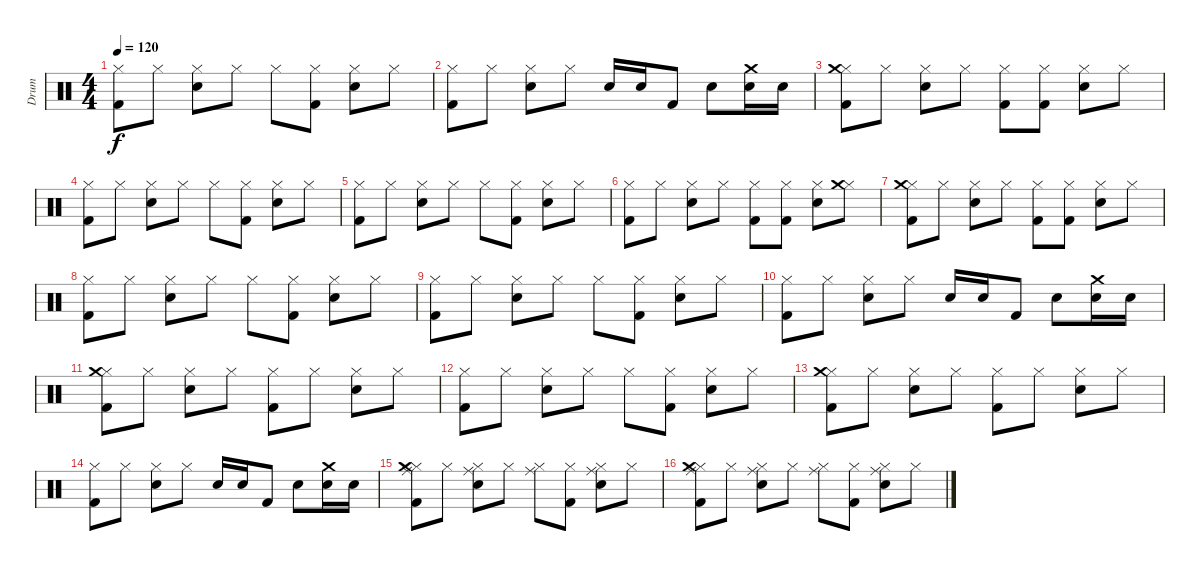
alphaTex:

\track ("Drum" "Drum") {instrument percussion}
\staff {score}
\articulation defaults
\ts (4 4)
\tempo 120
\clef neutral
\ks c
("Hi-Hat (closed)" "Kick (hit) 2").8{dy f} "Hi-Hat (closed)".8 ("Hi-Hat (closed)" "Snare (hit) 2").8 "Hi-Hat (closed)".8 "Hi-Hat (closed)".8 ("Hi-Hat (closed)" "Kick (hit) 2").8 ("Hi-Hat (closed)" "Snare (hit) 2").8 "Hi-Hat (closed)".8 |
("Hi-Hat (closed)" "Kick (hit) 2").8 "Hi-Hat (closed)".8 ("Hi-Hat (closed)" "Snare (hit) 2").8 "Hi-Hat (closed)".8 "Snare (hit) 2".16 "Snare (hit) 2".16 "Kick (hit) 2".8 "Snare (hit) 2".8 ("Crash medium (hit)" "Snare (hit) 2").16 "Snare (hit) 2".16 |
("Hi-Hat (closed)" "Kick (hit) 2" "Crash medium (hit)").8 "Hi-Hat (closed)".8 ("Hi-Hat (closed)" "Snare (hit) 2").8 "Hi-Hat (closed)".8 ("Hi-Hat (closed)" "Kick (hit) 2").8 ("Hi-Hat (closed)" "Kick (hit) 2").8 ("Hi-Hat (closed)" "Snare (hit) 2").8 "Hi-Hat (closed)".8 |
("Hi-Hat (closed)" "Kick (hit) 2").8 "Hi-Hat (closed)".8 ("Hi-Hat (closed)" "Snare (hit) 2").8 "Hi-Hat (closed)".8 "Hi-Hat (closed)".8 ("Hi-Hat (closed)" "Kick (hit) 2").8 ("Hi-Hat (closed)" "Snare (hit) 2").8 "Hi-Hat (closed)".8 |
("Hi-Hat (closed)" "Kick (hit) 2").8 "Hi-Hat (closed)".8 ("Hi-Hat (closed)" "Snare (hit) 2").8 "Hi-Hat (closed)".8 "Hi-Hat (closed)".8 ("Hi-Hat (closed)" "Kick (hit) 2").8 ("Hi-Hat (closed)" "Snare (hit) 2").8 "Hi-Hat (closed)".8 |
("Hi-Hat (closed)" "Kick (hit) 2").8 "Hi-Hat (closed)".8 ("Hi-Hat (closed)" "Snare (hit) 2").8 "Hi-Hat (closed)".8 ("Hi-Hat (closed)" "Kick (hit) 2").8 ("Hi-Hat (closed)" "Kick (hit) 2").8 ("Hi-Hat (closed)" "Snare (hit) 2").8 ("Hi-Hat (closed)" "Crash medium (hit)").8 |
("Hi-Hat (closed)" "Kick (hit) 2" "Crash medium (hit)").8 "Hi-Hat (closed)".8 ("Hi-Hat (closed)" "Snare (hit) 2").8 "Hi-Hat (closed)".8 ("Hi-Hat (closed)" "Kick (hit) 2").8 ("Hi-Hat (closed)" "Kick (hit) 2").8 ("Hi-Hat (closed)" "Snare (hit) 2").8 "Hi-Hat (closed)".8 |
("Hi-Hat (closed)" "Kick (hit) 2").8 "Hi-Hat (closed)".8 ("Hi-Hat (closed)" "Snare (hit) 2").8 "Hi-Hat (closed)".8 "Hi-Hat (closed)".8 ("Hi-Hat (closed)" "Kick (hit) 2").8 ("Hi-Hat (closed)" "Snare (hit) 2").8 "Hi-Hat (closed)".8 |
("Hi-Hat (closed)" "Kick (hit) 2").8 "Hi-Hat (closed)".8 ("Hi-Hat (closed)" "Snare (hit) 2").8 "Hi-Hat (closed)".8 "Hi-Hat (closed)".8 ("Hi-Hat (closed)" "Kick (hit) 2").8 ("Hi-Hat (closed)" "Snare (hit) 2").8 "Hi-Hat (closed)".8 |
("Hi-Hat (closed)" "Kick (hit) 2").8 "Hi-Hat (closed)".8 ("Hi-Hat (closed)" "Snare (hit) 2").8 "Hi-Hat (closed)".8 "Snare (hit) 2".16 "Snare (hit) 2".16 "Kick (hit) 2".8 "Snare (hit) 2".8 ("Crash medium (hit)" "Snare (hit) 2").16 "Snare (hit) 2".16 |
("Hi-Hat (closed)" "Kick (hit) 2" "Crash medium (hit)").8 "Hi-Hat (closed)".8 ("Hi-Hat (closed)" "Snare (hit) 2").8 "Hi-Hat (closed)".8 ("Hi-Hat (closed)" "Kick (hit) 2").8 "Hi-Hat (closed)".8 ("Hi-Hat (closed)" "Snare (hit) 2").8 "Hi-Hat (closed)".8 |
("Hi-Hat (closed)" "Kick (hit) 2").8 "Hi-Hat (closed)".8 ("Hi-Hat (closed)" "Snare (hit) 2").8 "Hi-Hat (closed)".8 "Hi-Hat (closed)".8 ("Hi-Hat (closed)" "Kick (hit) 2").8 ("Hi-Hat (closed)" "Snare (hit) 2").8 "Hi-Hat (closed)".8 |
("Hi-Hat (closed)" "Kick (hit) 2" "Crash medium (hit)").8 "Hi-Hat (closed)".8 ("Hi-Hat (closed)" "Snare (hit) 2").8 "Hi-Hat (closed)".8 ("Hi-Hat (closed)" "Kick (hit) 2").8 "Hi-Hat (closed)".8 ("Hi-Hat (closed)" "Snare (hit) 2").8 "Hi-Hat (closed)".8 |
("Hi-Hat (closed)" "Kick (hit) 2").8 "Hi-Hat (closed)".8 ("Hi-Hat (closed)" "Snare (hit) 2").8 "Hi-Hat (closed)".8 "Snare (hit) 2".16 "Snare (hit) 2".16 "Kick (hit) 2".8 "Snare (hit) 2".8 ("Crash medium (hit)" "Snare (hit) 2").16 "Snare (hit) 2".16 |
("Hi-Hat (closed)" "Kick (hit) 2" "Ride (middle)" "Crash medium (hit)").8 "Hi-Hat (closed)".8 ("Hi-Hat (closed)" "Snare (hit) 2" "Ride (middle)").8 "Hi-Hat (closed)".8 ("Hi-Hat (closed)" "Ride (middle)").8 ("Hi-Hat (closed)" "Kick (hit) 2").8 ("Hi-Hat (closed)" "Snare (hit) 2" "Ride (middle)").8 "Hi-Hat (closed)".8 |
("Hi-Hat (closed)" "Kick (hit) 2" "Ride (middle)" "Crash medium (hit)").8 "Hi-Hat (closed)".8 ("Hi-Hat (closed)" "Snare (hit) 2" "Ride (middle)").8 "Hi-Hat (closed)".8 ("Hi-Hat (closed)" "Ride (middle)").8 ("Hi-Hat (closed)" "Kick (hit) 2").8 ("Hi-Hat (closed)" "Snare (hit) 2" "Ride (middle)").8 "Hi-Hat (closed)".8
